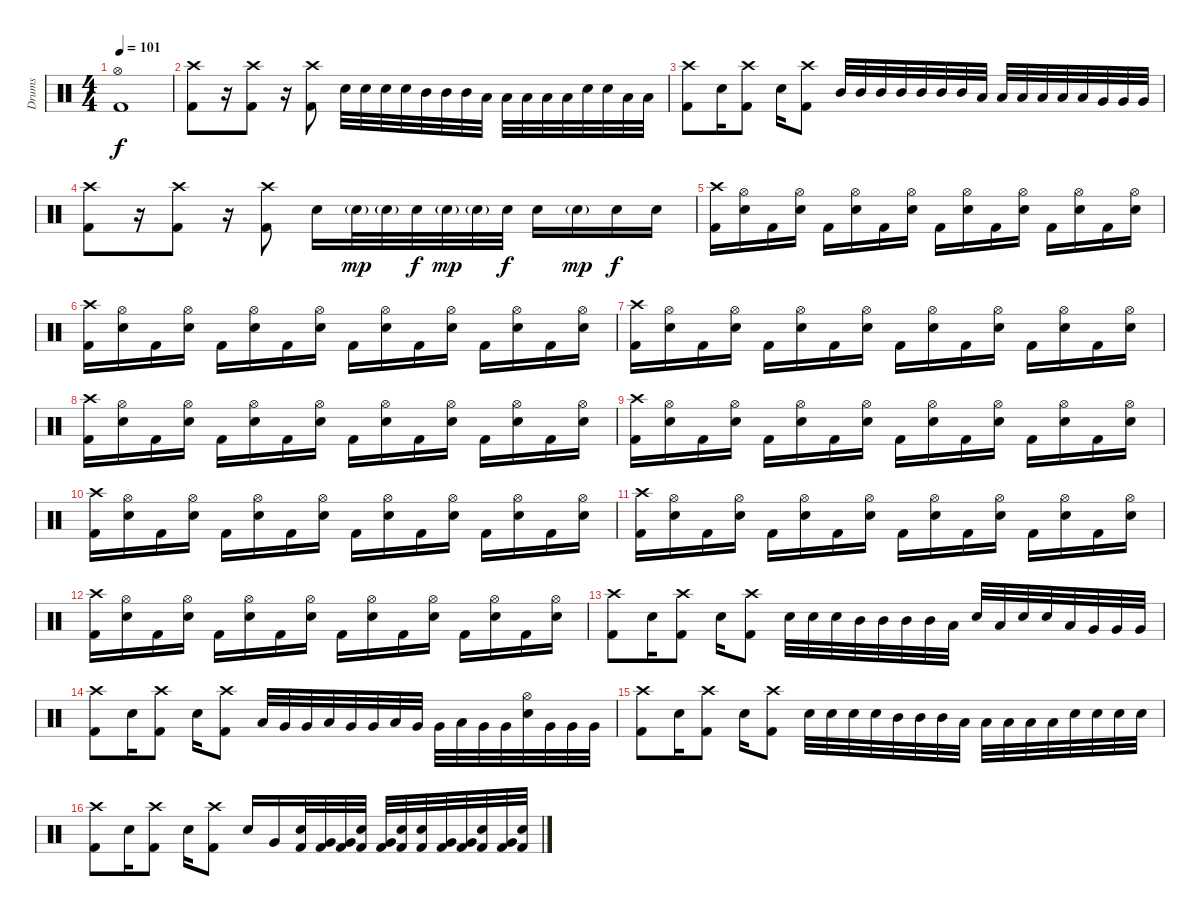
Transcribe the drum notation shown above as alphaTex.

\track ("Drums" "Drums") {instrument percussion}
\staff {score}
\articulation defaults
\ts (4 4)
\tempo 101
\clef neutral
\ks c
("Hi-Hat (open)" "Kick (hit) 2").1{dy f} |
("Crash high (hit)" "Kick (hit) 2").8 r.16 ("Crash high (hit)" "Kick (hit) 2").8 r.16 ("Crash high (hit)" "Kick (hit) 2").8 "Electric Snare (hit)".32 "Electric Snare (hit)".32 "Electric Snare (hit)".32 "Electric Snare (hit)".32 "Mid Tom (hit)".32 "Mid Tom (hit)".32 "Mid Tom (hit)".32 "Low Tom (hit)".32 "Low Tom (hit)".32 "Low Tom (hit)".32 "Low Tom (hit)".32 "Low Tom (hit)".32 "Electric Snare (hit)".32 "Electric Snare (hit)".32 "Low Tom (hit)".32 "Low Tom (hit)".32 |
("Crash high (hit)" "Kick (hit) 2").8 "Electric Snare (hit)".16 ("Crash high (hit)" "Kick (hit) 2").8 "Electric Snare (hit)".16 ("Crash high (hit)" "Kick (hit) 2").8 "Mid Tom (hit)".32 "Mid Tom (hit)".32 "Mid Tom (hit)".32 "Mid Tom (hit)".32 "Mid Tom (hit)".32 "Mid Tom (hit)".32 "Mid Tom (hit)".32 "Low Tom (hit)".32 "Low Tom (hit)".32 "Low Tom (hit)".32 "Low Tom (hit)".32 "Low Tom (hit)".32 "Low Tom (hit)".32 "Very Low Tom (hit)".32 "Very Low Tom (hit)".32 "Very Low Tom (hit)".32 |
("Crash high (hit)" "Kick (hit) 2").8 r.16 ("Crash high (hit)" "Kick (hit) 2").8 r.16 ("Crash high (hit)" "Kick (hit) 2").8 "Electric Snare (hit)".16 "Electric Snare (hit)"{g}.32{dy mp} "Electric Snare (hit)"{g}.32 "Electric Snare (hit)".32{dy f} "Electric Snare (hit)"{g}.32{dy mp} "Electric Snare (hit)"{g}.32 "Electric Snare (hit)".32{dy f} "Electric Snare (hit)".16 "Electric Snare (hit)"{g}.16{dy mp} "Electric Snare (hit)".16{dy f} "Electric Snare (hit)".16 |
("Crash high (hit)" "Kick (hit) 2").16 ("Hi-Hat (open)" "Electric Snare (hit)").16 "Kick (hit) 2".16 ("Hi-Hat (open)" "Electric Snare (hit)").16 "Kick (hit) 2".16 ("Hi-Hat (open)" "Electric Snare (hit)").16 "Kick (hit) 2".16 ("Hi-Hat (open)" "Electric Snare (hit)").16 "Kick (hit) 2".16 ("Hi-Hat (open)" "Electric Snare (hit)").16 "Kick (hit) 2".16 ("Hi-Hat (open)" "Electric Snare (hit)").16 "Kick (hit) 2".16 ("Hi-Hat (open)" "Electric Snare (hit)").16 "Kick (hit) 2".16 ("Hi-Hat (open)" "Electric Snare (hit)").16 |
("Crash high (hit)" "Kick (hit) 2").16 ("Hi-Hat (open)" "Electric Snare (hit)").16 "Kick (hit) 2".16 ("Hi-Hat (open)" "Electric Snare (hit)").16 "Kick (hit) 2".16 ("Hi-Hat (open)" "Electric Snare (hit)").16 "Kick (hit) 2".16 ("Hi-Hat (open)" "Electric Snare (hit)").16 "Kick (hit) 2".16 ("Hi-Hat (open)" "Electric Snare (hit)").16 "Kick (hit) 2".16 ("Hi-Hat (open)" "Electric Snare (hit)").16 "Kick (hit) 2".16 ("Hi-Hat (open)" "Electric Snare (hit)").16 "Kick (hit) 2".16 ("Hi-Hat (open)" "Electric Snare (hit)").16 |
("Crash high (hit)" "Kick (hit) 2").16 ("Hi-Hat (open)" "Electric Snare (hit)").16 "Kick (hit) 2".16 ("Hi-Hat (open)" "Electric Snare (hit)").16 "Kick (hit) 2".16 ("Hi-Hat (open)" "Electric Snare (hit)").16 "Kick (hit) 2".16 ("Hi-Hat (open)" "Electric Snare (hit)").16 "Kick (hit) 2".16 ("Hi-Hat (open)" "Electric Snare (hit)").16 "Kick (hit) 2".16 ("Hi-Hat (open)" "Electric Snare (hit)").16 "Kick (hit) 2".16 ("Hi-Hat (open)" "Electric Snare (hit)").16 "Kick (hit) 2".16 ("Hi-Hat (open)" "Electric Snare (hit)").16 |
("Crash high (hit)" "Kick (hit) 2").16 ("Hi-Hat (open)" "Electric Snare (hit)").16 "Kick (hit) 2".16 ("Hi-Hat (open)" "Electric Snare (hit)").16 "Kick (hit) 2".16 ("Hi-Hat (open)" "Electric Snare (hit)").16 "Kick (hit) 2".16 ("Hi-Hat (open)" "Electric Snare (hit)").16 "Kick (hit) 2".16 ("Hi-Hat (open)" "Electric Snare (hit)").16 "Kick (hit) 2".16 ("Hi-Hat (open)" "Electric Snare (hit)").16 "Kick (hit) 2".16 ("Hi-Hat (open)" "Electric Snare (hit)").16 "Kick (hit) 2".16 ("Hi-Hat (open)" "Electric Snare (hit)").16 |
("Crash high (hit)" "Kick (hit) 2").16 ("Hi-Hat (open)" "Electric Snare (hit)").16 "Kick (hit) 2".16 ("Hi-Hat (open)" "Electric Snare (hit)").16 "Kick (hit) 2".16 ("Hi-Hat (open)" "Electric Snare (hit)").16 "Kick (hit) 2".16 ("Hi-Hat (open)" "Electric Snare (hit)").16 "Kick (hit) 2".16 ("Hi-Hat (open)" "Electric Snare (hit)").16 "Kick (hit) 2".16 ("Hi-Hat (open)" "Electric Snare (hit)").16 "Kick (hit) 2".16 ("Hi-Hat (open)" "Electric Snare (hit)").16 "Kick (hit) 2".16 ("Hi-Hat (open)" "Electric Snare (hit)").16 |
("Crash high (hit)" "Kick (hit) 2").16 ("Hi-Hat (open)" "Electric Snare (hit)").16 "Kick (hit) 2".16 ("Hi-Hat (open)" "Electric Snare (hit)").16 "Kick (hit) 2".16 ("Hi-Hat (open)" "Electric Snare (hit)").16 "Kick (hit) 2".16 ("Hi-Hat (open)" "Electric Snare (hit)").16 "Kick (hit) 2".16 ("Hi-Hat (open)" "Electric Snare (hit)").16 "Kick (hit) 2".16 ("Hi-Hat (open)" "Electric Snare (hit)").16 "Kick (hit) 2".16 ("Hi-Hat (open)" "Electric Snare (hit)").16 "Kick (hit) 2".16 ("Hi-Hat (open)" "Electric Snare (hit)").16 |
("Crash high (hit)" "Kick (hit) 2").16 ("Hi-Hat (open)" "Electric Snare (hit)").16 "Kick (hit) 2".16 ("Hi-Hat (open)" "Electric Snare (hit)").16 "Kick (hit) 2".16 ("Hi-Hat (open)" "Electric Snare (hit)").16 "Kick (hit) 2".16 ("Hi-Hat (open)" "Electric Snare (hit)").16 "Kick (hit) 2".16 ("Hi-Hat (open)" "Electric Snare (hit)").16 "Kick (hit) 2".16 ("Hi-Hat (open)" "Electric Snare (hit)").16 "Kick (hit) 2".16 ("Hi-Hat (open)" "Electric Snare (hit)").16 "Kick (hit) 2".16 ("Hi-Hat (open)" "Electric Snare (hit)").16 |
("Crash high (hit)" "Kick (hit) 2").16 ("Hi-Hat (open)" "Electric Snare (hit)").16 "Kick (hit) 2".16 ("Hi-Hat (open)" "Electric Snare (hit)").16 "Kick (hit) 2".16 ("Hi-Hat (open)" "Electric Snare (hit)").16 "Kick (hit) 2".16 ("Hi-Hat (open)" "Electric Snare (hit)").16 "Kick (hit) 2".16 ("Hi-Hat (open)" "Electric Snare (hit)").16 "Kick (hit) 2".16 ("Hi-Hat (open)" "Electric Snare (hit)").16 "Kick (hit) 2".16 ("Hi-Hat (open)" "Electric Snare (hit)").16 "Kick (hit) 2".16 ("Hi-Hat (open)" "Electric Snare (hit)").16 |
("Crash high (hit)" "Kick (hit) 2").8 "Electric Snare (hit)".16 ("Crash high (hit)" "Kick (hit) 2").8 "Electric Snare (hit)".16 ("Crash high (hit)" "Kick (hit) 2").8 "Electric Snare (hit)".32 "Electric Snare (hit)".32 "Electric Snare (hit)".32 "Mid Tom (hit)".32 "Mid Tom (hit)".32 "Mid Tom (hit)".32 "Mid Tom (hit)".32 "Low Tom (hit)".32 "Electric Snare (hit)".32 "Low Tom (hit)".32 "Electric Snare (hit)".32 "Electric Snare (hit)".32 "Low Tom (hit)".32 "Very Low Tom (hit)".32 "Very Low Tom (hit)".32 "Very Low Tom (hit)".32 |
("Crash high (hit)" "Kick (hit) 2").8 "Electric Snare (hit)".16 ("Crash high (hit)" "Kick (hit) 2").8 "Electric Snare (hit)".16 ("Crash high (hit)" "Kick (hit) 2").8 "Low Tom (hit)".32 "Very Low Tom (hit)".32 "Very Low Tom (hit)".32 "Low Tom (hit)".32 "Very Low Tom (hit)".32 "Very Low Tom (hit)".32 "Low Tom (hit)".32 "Very Low Tom (hit)".32 "Very Low Tom (hit)".32 "Low Tom (hit)".32 "Very Low Tom (hit)".32 "Very Low Tom (hit)".32 ("Hi-Hat (open)" "Electric Snare (hit)").32 "Very Low Tom (hit)".32 "Very Low Tom (hit)".32 "Very Low Tom (hit)".32 |
("Crash high (hit)" "Kick (hit) 2").8 "Electric Snare (hit)".16 ("Crash high (hit)" "Kick (hit) 2").8 "Electric Snare (hit)".16 ("Crash high (hit)" "Kick (hit) 2").8 "Electric Snare (hit)".32 "Electric Snare (hit)".32 "Electric Snare (hit)".32 "Electric Snare (hit)".32 "Mid Tom (hit)".32 "Mid Tom (hit)".32 "Mid Tom (hit)".32 "Low Tom (hit)".32 "Low Tom (hit)".32 "Low Tom (hit)".32 "Low Tom (hit)".32 "Low Tom (hit)".32 "Electric Snare (hit)".32 "Electric Snare (hit)".32 "Electric Snare (hit)".32 "Electric Snare (hit)".32 |
("Crash high (hit)" "Kick (hit) 2").8 "Electric Snare (hit)".16 ("Crash high (hit)" "Kick (hit) 2").8 "Electric Snare (hit)".16 ("Crash high (hit)" "Kick (hit) 2").8 "Electric Snare (hit)".16 "Very Low Tom (hit)".16 ("Electric Snare (hit)" "Kick (hit) 2").32 ("Very Low Tom (hit)" "Kick (hit) 2").32 ("Very Low Tom (hit)" "Kick (hit) 2").32 ("Electric Snare (hit)" "Kick (hit) 2").32 ("Very Low Tom (hit)" "Kick (hit) 2").32 ("Electric Snare (hit)" "Kick (hit) 2").32 ("Electric Snare (hit)" "Kick (hit) 2").32 ("Very Low Tom (hit)" "Kick (hit) 2").32 ("Very Low Tom (hit)" "Kick (hit) 2").32 ("Electric Snare (hit)" "Kick (hit) 2").32 ("Very Low Tom (hit)" "Kick (hit) 2").32 ("Electric Snare (hit)" "Kick (hit) 2").32
